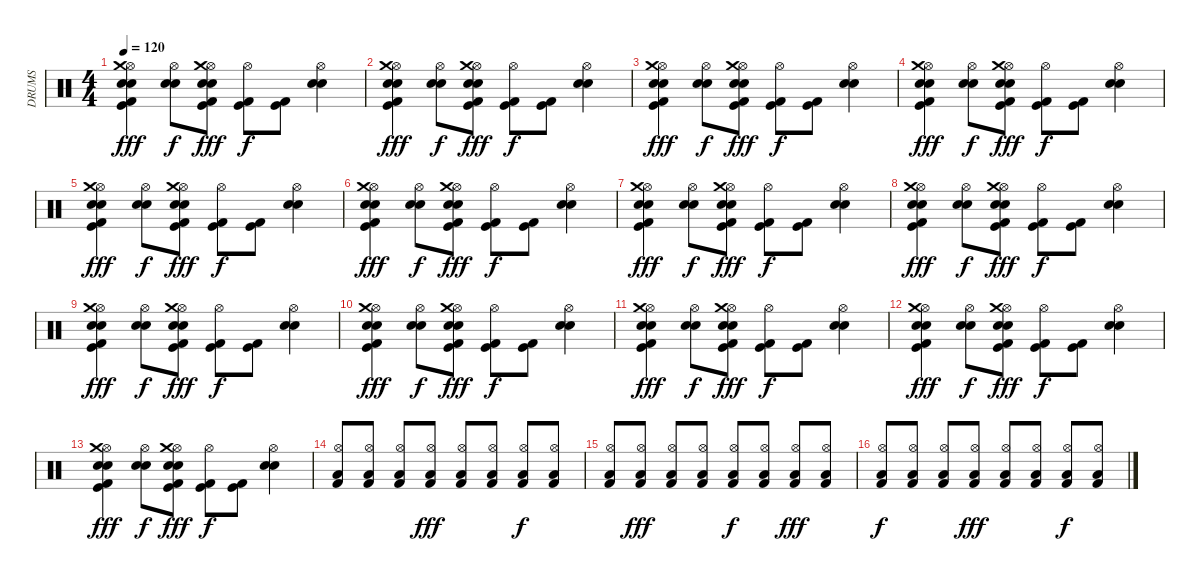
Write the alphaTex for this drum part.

\track ("DRUMS" "DRUMS") {instrument percussion}
\staff {score}
\articulation defaults
\ts (4 4)
\tempo 120
\clef neutral
\ks c
("Kick (hit)" "Kick (hit) 2" "Snare (hit) 2" "Electric Snare (hit)" "Hi-Hat (open)" "Crash medium (hit)").4{dy fff} ("Snare (hit) 2" "Electric Snare (hit)" "Hi-Hat (open)").8{dy f} ("Kick (hit)" "Kick (hit) 2" "Snare (hit) 2" "Electric Snare (hit)" "Hi-Hat (open)" "Crash medium (hit)").8{dy fff} ("Kick (hit)" "Kick (hit) 2" "Hi-Hat (open)").8{dy f} ("Kick (hit)" "Kick (hit) 2").8 ("Snare (hit) 2" "Electric Snare (hit)" "Hi-Hat (open)").4 |
("Kick (hit)" "Kick (hit) 2" "Snare (hit) 2" "Electric Snare (hit)" "Hi-Hat (open)" "Crash medium (hit)").4{dy fff} ("Snare (hit) 2" "Electric Snare (hit)" "Hi-Hat (open)").8{dy f} ("Kick (hit)" "Kick (hit) 2" "Snare (hit) 2" "Electric Snare (hit)" "Hi-Hat (open)" "Crash medium (hit)").8{dy fff} ("Kick (hit)" "Kick (hit) 2" "Hi-Hat (open)").8{dy f} ("Kick (hit)" "Kick (hit) 2").8 ("Snare (hit) 2" "Electric Snare (hit)" "Hi-Hat (open)").4 |
("Kick (hit)" "Kick (hit) 2" "Snare (hit) 2" "Electric Snare (hit)" "Hi-Hat (open)" "Crash medium (hit)").4{dy fff} ("Snare (hit) 2" "Electric Snare (hit)" "Hi-Hat (open)").8{dy f} ("Kick (hit)" "Kick (hit) 2" "Snare (hit) 2" "Electric Snare (hit)" "Hi-Hat (open)" "Crash medium (hit)").8{dy fff} ("Kick (hit)" "Kick (hit) 2" "Hi-Hat (open)").8{dy f} ("Kick (hit)" "Kick (hit) 2").8 ("Snare (hit) 2" "Electric Snare (hit)" "Hi-Hat (open)").4 |
("Kick (hit)" "Kick (hit) 2" "Snare (hit) 2" "Electric Snare (hit)" "Hi-Hat (open)" "Crash medium (hit)").4{dy fff} ("Snare (hit) 2" "Electric Snare (hit)" "Hi-Hat (open)").8{dy f} ("Kick (hit)" "Kick (hit) 2" "Snare (hit) 2" "Electric Snare (hit)" "Hi-Hat (open)" "Crash medium (hit)").8{dy fff} ("Kick (hit)" "Kick (hit) 2" "Hi-Hat (open)").8{dy f} ("Kick (hit)" "Kick (hit) 2").8 ("Snare (hit) 2" "Electric Snare (hit)" "Hi-Hat (open)").4 |
("Kick (hit)" "Kick (hit) 2" "Snare (hit) 2" "Electric Snare (hit)" "Hi-Hat (open)" "Crash medium (hit)").4{dy fff} ("Snare (hit) 2" "Electric Snare (hit)" "Hi-Hat (open)").8{dy f} ("Kick (hit)" "Kick (hit) 2" "Snare (hit) 2" "Electric Snare (hit)" "Hi-Hat (open)" "Crash medium (hit)").8{dy fff} ("Kick (hit)" "Kick (hit) 2" "Hi-Hat (open)").8{dy f} ("Kick (hit)" "Kick (hit) 2").8 ("Snare (hit) 2" "Electric Snare (hit)" "Hi-Hat (open)").4 |
("Kick (hit)" "Kick (hit) 2" "Snare (hit) 2" "Electric Snare (hit)" "Hi-Hat (open)" "Crash medium (hit)").4{dy fff} ("Snare (hit) 2" "Electric Snare (hit)" "Hi-Hat (open)").8{dy f} ("Kick (hit)" "Kick (hit) 2" "Snare (hit) 2" "Electric Snare (hit)" "Hi-Hat (open)" "Crash medium (hit)").8{dy fff} ("Kick (hit)" "Kick (hit) 2" "Hi-Hat (open)").8{dy f} ("Kick (hit)" "Kick (hit) 2").8 ("Snare (hit) 2" "Electric Snare (hit)" "Hi-Hat (open)").4 |
("Kick (hit)" "Kick (hit) 2" "Snare (hit) 2" "Electric Snare (hit)" "Hi-Hat (open)" "Crash medium (hit)").4{dy fff} ("Snare (hit) 2" "Electric Snare (hit)" "Hi-Hat (open)").8{dy f} ("Kick (hit)" "Kick (hit) 2" "Snare (hit) 2" "Electric Snare (hit)" "Hi-Hat (open)" "Crash medium (hit)").8{dy fff} ("Kick (hit)" "Kick (hit) 2" "Hi-Hat (open)").8{dy f} ("Kick (hit)" "Kick (hit) 2").8 ("Snare (hit) 2" "Electric Snare (hit)" "Hi-Hat (open)").4 |
("Kick (hit)" "Kick (hit) 2" "Snare (hit) 2" "Electric Snare (hit)" "Hi-Hat (open)" "Crash medium (hit)").4{dy fff} ("Snare (hit) 2" "Electric Snare (hit)" "Hi-Hat (open)").8{dy f} ("Kick (hit)" "Kick (hit) 2" "Snare (hit) 2" "Electric Snare (hit)" "Hi-Hat (open)" "Crash medium (hit)").8{dy fff} ("Kick (hit)" "Kick (hit) 2" "Hi-Hat (open)").8{dy f} ("Kick (hit)" "Kick (hit) 2").8 ("Snare (hit) 2" "Electric Snare (hit)" "Hi-Hat (open)").4 |
("Kick (hit)" "Kick (hit) 2" "Snare (hit) 2" "Electric Snare (hit)" "Hi-Hat (open)" "Crash medium (hit)").4{dy fff} ("Snare (hit) 2" "Electric Snare (hit)" "Hi-Hat (open)").8{dy f} ("Kick (hit)" "Kick (hit) 2" "Snare (hit) 2" "Electric Snare (hit)" "Hi-Hat (open)" "Crash medium (hit)").8{dy fff} ("Kick (hit)" "Kick (hit) 2" "Hi-Hat (open)").8{dy f} ("Kick (hit)" "Kick (hit) 2").8 ("Snare (hit) 2" "Electric Snare (hit)" "Hi-Hat (open)").4 |
("Kick (hit)" "Kick (hit) 2" "Snare (hit) 2" "Electric Snare (hit)" "Hi-Hat (open)" "Crash medium (hit)").4{dy fff} ("Snare (hit) 2" "Electric Snare (hit)" "Hi-Hat (open)").8{dy f} ("Kick (hit)" "Kick (hit) 2" "Snare (hit) 2" "Electric Snare (hit)" "Hi-Hat (open)" "Crash medium (hit)").8{dy fff} ("Kick (hit)" "Kick (hit) 2" "Hi-Hat (open)").8{dy f} ("Kick (hit)" "Kick (hit) 2").8 ("Snare (hit) 2" "Electric Snare (hit)" "Hi-Hat (open)").4 |
("Kick (hit)" "Kick (hit) 2" "Snare (hit) 2" "Electric Snare (hit)" "Hi-Hat (open)" "Crash medium (hit)").4{dy fff} ("Snare (hit) 2" "Electric Snare (hit)" "Hi-Hat (open)").8{dy f} ("Kick (hit)" "Kick (hit) 2" "Snare (hit) 2" "Electric Snare (hit)" "Hi-Hat (open)" "Crash medium (hit)").8{dy fff} ("Kick (hit)" "Kick (hit) 2" "Hi-Hat (open)").8{dy f} ("Kick (hit)" "Kick (hit) 2").8 ("Snare (hit) 2" "Electric Snare (hit)" "Hi-Hat (open)").4 |
("Kick (hit)" "Kick (hit) 2" "Snare (hit) 2" "Electric Snare (hit)" "Hi-Hat (open)" "Crash medium (hit)").4{dy fff} ("Snare (hit) 2" "Electric Snare (hit)" "Hi-Hat (open)").8{dy f} ("Kick (hit)" "Kick (hit) 2" "Snare (hit) 2" "Electric Snare (hit)" "Hi-Hat (open)" "Crash medium (hit)").8{dy fff} ("Kick (hit)" "Kick (hit) 2" "Hi-Hat (open)").8{dy f} ("Kick (hit)" "Kick (hit) 2").8 ("Snare (hit) 2" "Electric Snare (hit)" "Hi-Hat (open)").4 |
("Kick (hit)" "Kick (hit) 2" "Snare (hit) 2" "Electric Snare (hit)" "Hi-Hat (open)" "Crash medium (hit)").4{dy fff} ("Snare (hit) 2" "Electric Snare (hit)" "Hi-Hat (open)").8{dy f} ("Kick (hit)" "Kick (hit) 2" "Snare (hit) 2" "Electric Snare (hit)" "Hi-Hat (open)" "Crash medium (hit)").8{dy fff} ("Kick (hit)" "Kick (hit) 2" "Hi-Hat (open)").8{dy f} ("Kick (hit)" "Kick (hit) 2").8 ("Snare (hit) 2" "Electric Snare (hit)" "Hi-Hat (open)").4 |
("Kick (hit) 2" "Hi-Hat (open)" "Low Tom (hit)").8 ("Kick (hit) 2" "Hi-Hat (open)" "Low Tom (hit)").8 ("Kick (hit) 2" "Hi-Hat (open)" "Low Tom (hit)").8 ("Kick (hit) 2" "Hi-Hat (open)" "Low Tom (hit)").8{dy fff} ("Kick (hit) 2" "Hi-Hat (open)" "Low Tom (hit)").8 ("Kick (hit) 2" "Hi-Hat (open)" "Low Tom (hit)").8 ("Kick (hit) 2" "Hi-Hat (open)" "Low Tom (hit)").8{dy f} ("Kick (hit) 2" "Hi-Hat (open)" "Low Tom (hit)").8 |
("Kick (hit) 2" "Hi-Hat (open)" "Low Tom (hit)").8 ("Kick (hit) 2" "Hi-Hat (open)" "Low Tom (hit)").8{dy fff} ("Kick (hit) 2" "Hi-Hat (open)" "Low Tom (hit)").8 ("Kick (hit) 2" "Hi-Hat (open)" "Low Tom (hit)").8 ("Kick (hit) 2" "Hi-Hat (open)" "Low Tom (hit)").8{dy f} ("Kick (hit) 2" "Hi-Hat (open)" "Low Tom (hit)").8 ("Kick (hit) 2" "Hi-Hat (open)" "Low Tom (hit)").8{dy fff} ("Kick (hit) 2" "Hi-Hat (open)" "Low Tom (hit)").8 |
("Kick (hit) 2" "Hi-Hat (open)" "Low Tom (hit)").8{dy f} ("Kick (hit) 2" "Hi-Hat (open)" "Low Tom (hit)").8 ("Kick (hit) 2" "Hi-Hat (open)" "Low Tom (hit)").8 ("Kick (hit) 2" "Hi-Hat (open)" "Low Tom (hit)").8{dy fff} ("Kick (hit) 2" "Hi-Hat (open)" "Low Tom (hit)").8 ("Kick (hit) 2" "Hi-Hat (open)" "Low Tom (hit)").8 ("Kick (hit) 2" "Hi-Hat (open)" "Low Tom (hit)").8{dy f} ("Kick (hit) 2" "Hi-Hat (open)" "Low Tom (hit)").8
